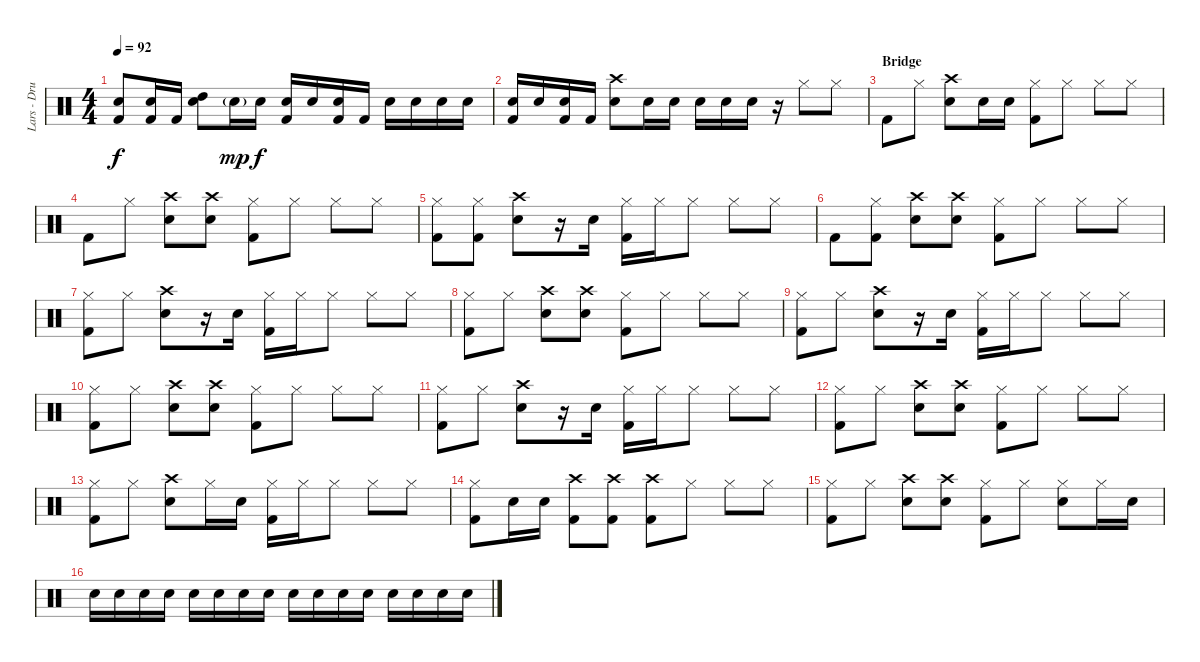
\track ("Lars - Drums" "Lars - Dru") {instrument percussion}
\staff {score}
\articulation defaults
\ts (4 4)
\tempo 92
\clef neutral
\ks c
("Electric Snare (hit)" "Kick (hit) 2").8{dy f} ("Electric Snare (hit)" "Kick (hit) 2").16 "Kick (hit) 2".16 ("High Tom (hit)" "Electric Snare (hit)").8 "Electric Snare (hit)"{g}.16{dy mp} "Electric Snare (hit)".16{dy f} ("Electric Snare (hit)" "Kick (hit) 2").16 "Electric Snare (hit)".16 ("Electric Snare (hit)" "Kick (hit) 2").16 "Kick (hit) 2".16 "Electric Snare (hit)".16 "Electric Snare (hit)".16 "Electric Snare (hit)".16 "Electric Snare (hit)".16 |
("Electric Snare (hit)" "Kick (hit) 2").16 "Electric Snare (hit)".16 ("Electric Snare (hit)" "Kick (hit) 2").16 "Kick (hit) 2".16 ("Crash high (hit)" "Electric Snare (hit)").8 "Electric Snare (hit)".16 "Electric Snare (hit)".16 "Electric Snare (hit)".16 "Electric Snare (hit)".16 "Electric Snare (hit)".16 r.16 "Hi-Hat (closed)".8 "Hi-Hat (closed)".8 |
\section ("" "Bridge")
"Kick (hit) 2".8 "Hi-Hat (closed)".8 ("Crash high (hit)" "Electric Snare (hit)").8 "Electric Snare (hit)".16 "Electric Snare (hit)".16 ("Hi-Hat (closed)" "Kick (hit) 2").8 "Hi-Hat (closed)".8 "Hi-Hat (closed)".8 "Hi-Hat (closed)".8 |
"Kick (hit) 2".8 "Hi-Hat (closed)".8 ("Crash high (hit)" "Electric Snare (hit)").8 ("Crash high (hit)" "Electric Snare (hit)").8 ("Hi-Hat (closed)" "Kick (hit) 2").8 "Hi-Hat (closed)".8 "Hi-Hat (closed)".8 "Hi-Hat (closed)".8 |
("Hi-Hat (closed)" "Kick (hit) 2").8 ("Hi-Hat (closed)" "Kick (hit) 2").8 ("Crash high (hit)" "Electric Snare (hit)").8 r.16 "Electric Snare (hit)".16 ("Hi-Hat (closed)" "Kick (hit) 2").16 "Hi-Hat (closed)".16 "Hi-Hat (closed)".8 "Hi-Hat (closed)".8 "Hi-Hat (closed)".8 |
"Kick (hit) 2".8 ("Hi-Hat (closed)" "Kick (hit) 2").8 ("Crash high (hit)" "Electric Snare (hit)").8 ("Crash high (hit)" "Electric Snare (hit)").8 ("Hi-Hat (closed)" "Kick (hit) 2").8 "Hi-Hat (closed)".8 "Hi-Hat (closed)".8 "Hi-Hat (closed)".8 |
("Hi-Hat (closed)" "Kick (hit) 2").8 "Hi-Hat (closed)".8 ("Crash high (hit)" "Electric Snare (hit)").8 r.16 "Electric Snare (hit)".16 ("Hi-Hat (closed)" "Kick (hit) 2").16 "Hi-Hat (closed)".16 "Hi-Hat (closed)".8 "Hi-Hat (closed)".8 "Hi-Hat (closed)".8 |
("Hi-Hat (closed)" "Kick (hit) 2").8 "Hi-Hat (closed)".8 ("Crash high (hit)" "Electric Snare (hit)").8 ("Crash high (hit)" "Electric Snare (hit)").8 ("Hi-Hat (closed)" "Kick (hit) 2").8 "Hi-Hat (closed)".8 "Hi-Hat (closed)".8 "Hi-Hat (closed)".8 |
("Hi-Hat (closed)" "Kick (hit) 2").8 "Hi-Hat (closed)".8 ("Crash high (hit)" "Electric Snare (hit)").8 r.16 "Electric Snare (hit)".16 ("Hi-Hat (closed)" "Kick (hit) 2").16 "Hi-Hat (closed)".16 "Hi-Hat (closed)".8 "Hi-Hat (closed)".8 "Hi-Hat (closed)".8 |
("Hi-Hat (closed)" "Kick (hit) 2").8 "Hi-Hat (closed)".8 ("Crash high (hit)" "Electric Snare (hit)").8 ("Crash high (hit)" "Electric Snare (hit)").8 ("Hi-Hat (closed)" "Kick (hit) 2").8 "Hi-Hat (closed)".8 "Hi-Hat (closed)".8 "Hi-Hat (closed)".8 |
("Hi-Hat (closed)" "Kick (hit) 2").8 "Hi-Hat (closed)".8 ("Crash high (hit)" "Electric Snare (hit)").8 r.16 "Electric Snare (hit)".16 ("Hi-Hat (closed)" "Kick (hit) 2").16 "Hi-Hat (closed)".16 "Hi-Hat (closed)".8 "Hi-Hat (closed)".8 "Hi-Hat (closed)".8 |
("Hi-Hat (closed)" "Kick (hit) 2").8 "Hi-Hat (closed)".8 ("Crash high (hit)" "Electric Snare (hit)").8 ("Crash high (hit)" "Electric Snare (hit)").8 ("Hi-Hat (closed)" "Kick (hit) 2").8 "Hi-Hat (closed)".8 "Hi-Hat (closed)".8 "Hi-Hat (closed)".8 |
("Hi-Hat (closed)" "Kick (hit) 2").8 "Hi-Hat (closed)".8 ("Crash high (hit)" "Electric Snare (hit)").8 "Hi-Hat (closed)".16 "Electric Snare (hit)".16 ("Hi-Hat (closed)" "Kick (hit) 2").16 "Hi-Hat (closed)".16 "Hi-Hat (closed)".8 "Hi-Hat (closed)".8 "Hi-Hat (closed)".8 |
("Hi-Hat (closed)" "Kick (hit) 2").8 "Electric Snare (hit)".16 "Electric Snare (hit)".16 ("Crash high (hit)" "Kick (hit) 2").8 ("Crash high (hit)" "Kick (hit) 2").8 ("Crash high (hit)" "Kick (hit) 2").8 "Hi-Hat (closed)".8 "Hi-Hat (closed)".8 "Hi-Hat (closed)".8 |
("Hi-Hat (closed)" "Kick (hit) 2").8 "Hi-Hat (closed)".8 ("Crash high (hit)" "Electric Snare (hit)").8 ("Crash high (hit)" "Electric Snare (hit)").8 ("Hi-Hat (closed)" "Kick (hit) 2").8 "Hi-Hat (closed)".8 ("Hi-Hat (closed)" "Electric Snare (hit)").8 "Hi-Hat (closed)".16 "Electric Snare (hit)".16 |
"Electric Snare (hit)".16 "Electric Snare (hit)".16 "Electric Snare (hit)".16 "Electric Snare (hit)".16 "Electric Snare (hit)".16 "Electric Snare (hit)".16 "Electric Snare (hit)".16 "Electric Snare (hit)".16 "Electric Snare (hit)".16 "Electric Snare (hit)".16 "Electric Snare (hit)".16 "Electric Snare (hit)".16 "Electric Snare (hit)".16 "Electric Snare (hit)".16 "Electric Snare (hit)".16 "Electric Snare (hit)".16
